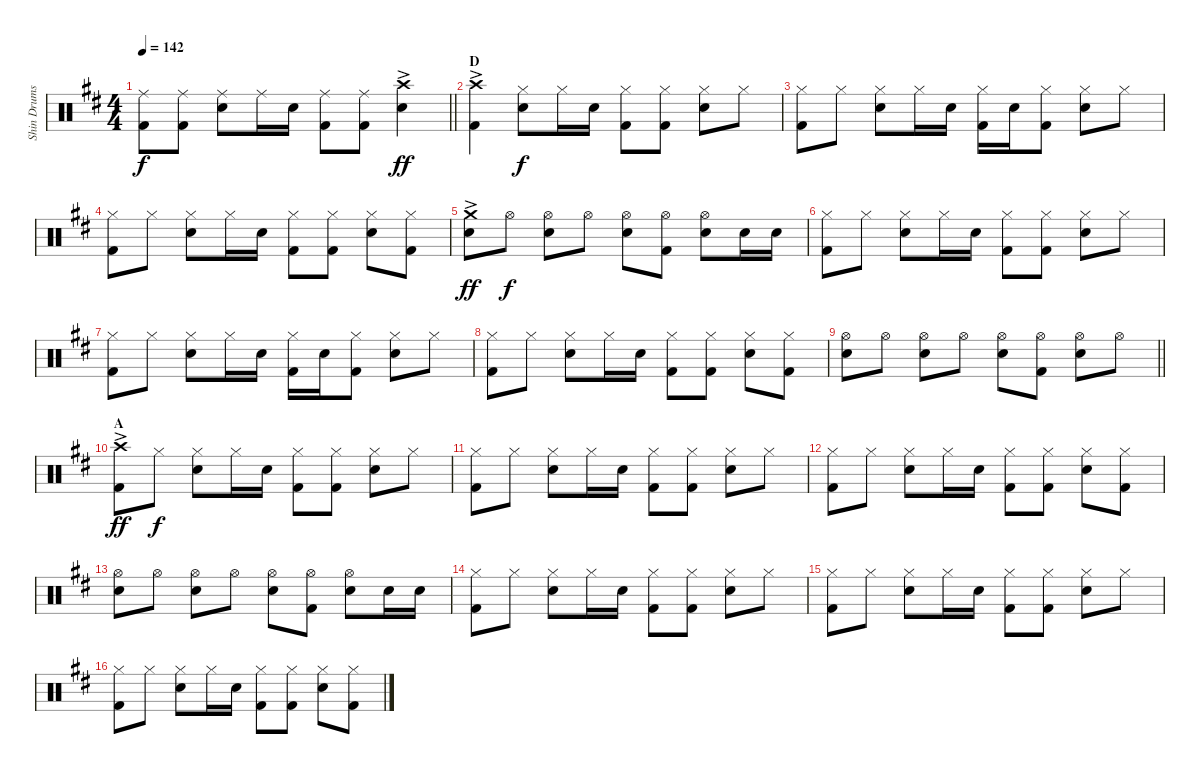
\track ("Shin Drums" "Shin Drums") {instrument percussion}
\staff {score}
\articulation defaults
\ts (4 4)
\tempo 142
\clef neutral
\barLineRight lightlight
\ks d
("Ride (middle)" "Kick (hit) 2").8{dy f} ("Ride (middle)" "Kick (hit) 2").8 ("Ride (middle)" "Snare (hit) 2").8 "Ride (middle)".16 "Snare (hit) 2".16 ("Ride (middle)" "Kick (hit) 2").8 ("Ride (middle)" "Kick (hit) 2").8 ("Crash high (hit)"{ac} "Snare (hit) 2").4{dy ff} |
\section ("" "D")
("Crash high (hit)"{ac} "Kick (hit) 2").4 ("Hi-Hat (closed)" "Snare (hit) 2").8{dy f} "Hi-Hat (closed)".16 "Snare (hit) 2".16 ("Hi-Hat (closed)" "Kick (hit) 2").8 ("Hi-Hat (closed)" "Kick (hit) 2").8 ("Hi-Hat (closed)" "Snare (hit) 2").8 "Hi-Hat (closed)".8 |
("Hi-Hat (closed)" "Kick (hit) 2").8 "Hi-Hat (closed)".8 ("Hi-Hat (closed)" "Snare (hit) 2").8 "Hi-Hat (closed)".16 "Snare (hit) 2".16 ("Hi-Hat (closed)" "Kick (hit) 2").16 "Snare (hit) 2".16 ("Hi-Hat (closed)" "Kick (hit) 2").8 ("Hi-Hat (closed)" "Snare (hit) 2").8 "Hi-Hat (closed)".8 |
("Hi-Hat (closed)" "Kick (hit) 2").8 "Hi-Hat (closed)".8 ("Hi-Hat (closed)" "Snare (hit) 2").8 "Hi-Hat (closed)".16 "Snare (hit) 2".16 ("Hi-Hat (closed)" "Kick (hit) 2").8 ("Hi-Hat (closed)" "Kick (hit) 2").8 ("Hi-Hat (closed)" "Snare (hit) 2").8 ("Hi-Hat (closed)" "Kick (hit) 2").8 |
("Crash medium (hit)"{ac} "Snare (hit) 2").8{dy ff} "Hi-Hat (open)".8{dy f} ("Hi-Hat (open)" "Snare (hit) 2").8 "Hi-Hat (open)".8 ("Hi-Hat (open)" "Snare (hit) 2").8 ("Hi-Hat (open)" "Kick (hit) 2").8 ("Hi-Hat (open)" "Snare (hit) 2").8 "Snare (hit) 2".16 "Snare (hit) 2".16 |
("Hi-Hat (closed)" "Kick (hit) 2").8 "Hi-Hat (closed)".8 ("Hi-Hat (closed)" "Snare (hit) 2").8 "Hi-Hat (closed)".16 "Snare (hit) 2".16 ("Hi-Hat (closed)" "Kick (hit) 2").8 ("Hi-Hat (closed)" "Kick (hit) 2").8 ("Hi-Hat (closed)" "Snare (hit) 2").8 "Hi-Hat (closed)".8 |
("Hi-Hat (closed)" "Kick (hit) 2").8 "Hi-Hat (closed)".8 ("Hi-Hat (closed)" "Snare (hit) 2").8 "Hi-Hat (closed)".16 "Snare (hit) 2".16 ("Hi-Hat (closed)" "Kick (hit) 2").16 "Snare (hit) 2".16 ("Hi-Hat (closed)" "Kick (hit) 2").8 ("Hi-Hat (closed)" "Snare (hit) 2").8 "Hi-Hat (closed)".8 |
("Hi-Hat (closed)" "Kick (hit) 2").8 "Hi-Hat (closed)".8 ("Hi-Hat (closed)" "Snare (hit) 2").8 "Hi-Hat (closed)".16 "Snare (hit) 2".16 ("Hi-Hat (closed)" "Kick (hit) 2").8 ("Hi-Hat (closed)" "Kick (hit) 2").8 ("Hi-Hat (closed)" "Snare (hit) 2").8 ("Hi-Hat (closed)" "Kick (hit) 2").8 |
\barLineRight lightlight
("Hi-Hat (open)" "Snare (hit) 2").8 "Hi-Hat (open)".8 ("Hi-Hat (open)" "Snare (hit) 2").8 "Hi-Hat (open)".8 ("Hi-Hat (open)" "Snare (hit) 2").8 ("Hi-Hat (open)" "Kick (hit) 2").8 ("Hi-Hat (open)" "Snare (hit) 2").8 "Hi-Hat (open)".8 |
\section ("" "A")
("Crash high (hit)"{ac} "Kick (hit) 2").8{dy ff} "Hi-Hat (closed)".8{dy f} ("Hi-Hat (closed)" "Snare (hit) 2").8 "Hi-Hat (closed)".16 "Snare (hit) 2".16 ("Hi-Hat (closed)" "Kick (hit) 2").8 ("Hi-Hat (closed)" "Kick (hit) 2").8 ("Hi-Hat (closed)" "Snare (hit) 2").8 "Hi-Hat (closed)".8 |
("Hi-Hat (closed)" "Kick (hit) 2").8 "Hi-Hat (closed)".8 ("Hi-Hat (closed)" "Snare (hit) 2").8 "Hi-Hat (closed)".16 "Snare (hit) 2".16 ("Hi-Hat (closed)" "Kick (hit) 2").8 ("Hi-Hat (closed)" "Kick (hit) 2").8 ("Hi-Hat (closed)" "Snare (hit) 2").8 "Hi-Hat (closed)".8 |
("Hi-Hat (closed)" "Kick (hit) 2").8 "Hi-Hat (closed)".8 ("Hi-Hat (closed)" "Snare (hit) 2").8 "Hi-Hat (closed)".16 "Snare (hit) 2".16 ("Hi-Hat (closed)" "Kick (hit) 2").8 ("Hi-Hat (closed)" "Kick (hit) 2").8 ("Hi-Hat (closed)" "Snare (hit) 2").8 ("Hi-Hat (closed)" "Kick (hit) 2").8 |
("Hi-Hat (open)" "Snare (hit) 2").8 "Hi-Hat (open)".8 ("Hi-Hat (open)" "Snare (hit) 2").8 "Hi-Hat (open)".8 ("Hi-Hat (open)" "Snare (hit) 2").8 ("Hi-Hat (open)" "Kick (hit) 2").8 ("Hi-Hat (open)" "Snare (hit) 2").8 "Snare (hit) 2".16 "Snare (hit) 2".16 |
("Hi-Hat (closed)" "Kick (hit) 2").8 "Hi-Hat (closed)".8 ("Hi-Hat (closed)" "Snare (hit) 2").8 "Hi-Hat (closed)".16 "Snare (hit) 2".16 ("Hi-Hat (closed)" "Kick (hit) 2").8 ("Hi-Hat (closed)" "Kick (hit) 2").8 ("Hi-Hat (closed)" "Snare (hit) 2").8 "Hi-Hat (closed)".8 |
("Hi-Hat (closed)" "Kick (hit) 2").8 "Hi-Hat (closed)".8 ("Hi-Hat (closed)" "Snare (hit) 2").8 "Hi-Hat (closed)".16 "Snare (hit) 2".16 ("Hi-Hat (closed)" "Kick (hit) 2").8 ("Hi-Hat (closed)" "Kick (hit) 2").8 ("Hi-Hat (closed)" "Snare (hit) 2").8 "Hi-Hat (closed)".8 |
("Hi-Hat (closed)" "Kick (hit) 2").8 "Hi-Hat (closed)".8 ("Hi-Hat (closed)" "Snare (hit) 2").8 "Hi-Hat (closed)".16 "Snare (hit) 2".16 ("Hi-Hat (closed)" "Kick (hit) 2").8 ("Hi-Hat (closed)" "Kick (hit) 2").8 ("Hi-Hat (closed)" "Snare (hit) 2").8 ("Hi-Hat (closed)" "Kick (hit) 2").8
